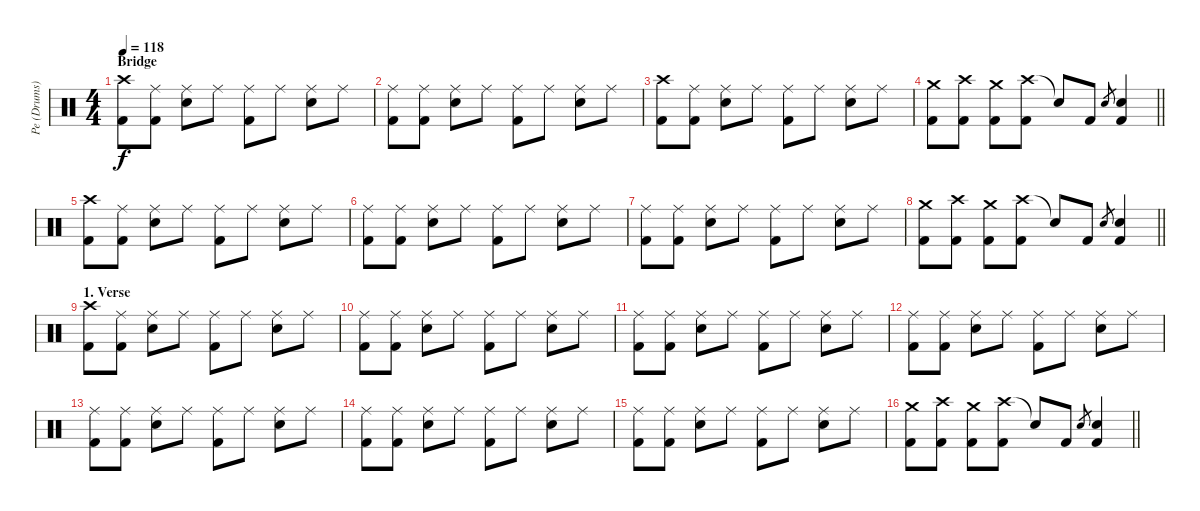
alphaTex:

\track ("Pe (Drums)" "Pe (Drums)") {instrument percussion}
\staff {score}
\articulation defaults
\ts (4 4)
\section ("" "Bridge")
\tempo 118
\clef neutral
\ks c
("Crash high (hit)" "Kick (hit) 2").8{dy f} ("Ride (middle)" "Kick (hit) 2").8 ("Ride (middle)" "Snare (hit) 2").8 "Ride (middle)".8 ("Ride (middle)" "Kick (hit) 2").8 "Ride (middle)".8 ("Ride (middle)" "Snare (hit) 2").8 "Ride (middle)".8 |
("Ride (middle)" "Kick (hit) 2").8 ("Ride (middle)" "Kick (hit) 2").8 ("Ride (middle)" "Snare (hit) 2").8 "Ride (middle)".8 ("Ride (middle)" "Kick (hit) 2").8 "Ride (middle)".8 ("Ride (middle)" "Snare (hit) 2").8 "Ride (middle)".8 |
("Crash high (hit)" "Kick (hit) 2").8 ("Ride (middle)" "Kick (hit) 2").8 ("Ride (middle)" "Snare (hit) 2").8 "Ride (middle)".8 ("Ride (middle)" "Kick (hit) 2").8 "Ride (middle)".8 ("Ride (middle)" "Snare (hit) 2").8 "Ride (middle)".8 |
\barLineRight lightlight
("Crash medium (hit)" "Kick (hit) 2").8 ("Crash high (hit)" "Kick (hit) 2").8 ("Crash medium (hit)" "Kick (hit) 2").8 ("Crash high (hit)" "Kick (hit) 2").8 "Snare (hit)"{t}.8 "Kick (hit) 2".8 "Snare (hit) 2".8{gr} ("Snare (hit) 2" "Kick (hit) 2").4 |
("Crash high (hit)" "Kick (hit) 2").8 ("Ride (middle)" "Kick (hit) 2").8 ("Ride (middle)" "Snare (hit) 2").8 "Ride (middle)".8 ("Ride (middle)" "Kick (hit) 2").8 "Ride (middle)".8 ("Ride (middle)" "Snare (hit) 2").8 "Ride (middle)".8 |
("Ride (middle)" "Kick (hit) 2").8 ("Ride (middle)" "Kick (hit) 2").8 ("Ride (middle)" "Snare (hit) 2").8 "Ride (middle)".8 ("Ride (middle)" "Kick (hit) 2").8 "Ride (middle)".8 ("Ride (middle)" "Snare (hit) 2").8 "Ride (middle)".8 |
("Ride (middle)" "Kick (hit) 2").8 ("Ride (middle)" "Kick (hit) 2").8 ("Ride (middle)" "Snare (hit) 2").8 "Ride (middle)".8 ("Ride (middle)" "Kick (hit) 2").8 "Ride (middle)".8 ("Ride (middle)" "Snare (hit) 2").8 "Ride (middle)".8 |
\barLineRight lightlight
("Crash medium (hit)" "Kick (hit) 2").8 ("Crash high (hit)" "Kick (hit) 2").8 ("Crash medium (hit)" "Kick (hit) 2").8 ("Crash high (hit)" "Kick (hit) 2").8 "Snare (hit)"{t}.8 "Kick (hit) 2".8 "Snare (hit) 2".8{gr} ("Snare (hit) 2" "Kick (hit) 2").4 |
\section ("" "1. Verse")
("Crash high (hit)" "Kick (hit) 2").8 ("Ride (middle)" "Kick (hit) 2").8 ("Ride (middle)" "Snare (hit) 2").8 "Ride (middle)".8 ("Ride (middle)" "Kick (hit) 2").8 "Ride (middle)".8 ("Ride (middle)" "Snare (hit) 2").8 "Ride (middle)".8 |
("Ride (middle)" "Kick (hit) 2").8 ("Ride (middle)" "Kick (hit) 2").8 ("Ride (middle)" "Snare (hit) 2").8 "Ride (middle)".8 ("Ride (middle)" "Kick (hit) 2").8 "Ride (middle)".8 ("Ride (middle)" "Snare (hit) 2").8 "Ride (middle)".8 |
("Ride (middle)" "Kick (hit) 2").8 ("Ride (middle)" "Kick (hit) 2").8 ("Ride (middle)" "Snare (hit) 2").8 "Ride (middle)".8 ("Ride (middle)" "Kick (hit) 2").8 "Ride (middle)".8 ("Ride (middle)" "Snare (hit) 2").8 "Ride (middle)".8 |
("Ride (middle)" "Kick (hit) 2").8 ("Ride (middle)" "Kick (hit) 2").8 ("Ride (middle)" "Snare (hit) 2").8 "Ride (middle)".8 ("Ride (middle)" "Kick (hit) 2").8 "Ride (middle)".8 ("Ride (middle)" "Snare (hit) 2").8 "Ride (middle)".8 |
("Ride (middle)" "Kick (hit) 2").8 ("Ride (middle)" "Kick (hit) 2").8 ("Ride (middle)" "Snare (hit) 2").8 "Ride (middle)".8 ("Ride (middle)" "Kick (hit) 2").8 "Ride (middle)".8 ("Ride (middle)" "Snare (hit) 2").8 "Ride (middle)".8 |
("Ride (middle)" "Kick (hit) 2").8 ("Ride (middle)" "Kick (hit) 2").8 ("Ride (middle)" "Snare (hit) 2").8 "Ride (middle)".8 ("Ride (middle)" "Kick (hit) 2").8 "Ride (middle)".8 ("Ride (middle)" "Snare (hit) 2").8 "Ride (middle)".8 |
("Ride (middle)" "Kick (hit) 2").8 ("Ride (middle)" "Kick (hit) 2").8 ("Ride (middle)" "Snare (hit) 2").8 "Ride (middle)".8 ("Ride (middle)" "Kick (hit) 2").8 "Ride (middle)".8 ("Ride (middle)" "Snare (hit) 2").8 "Ride (middle)".8 |
\barLineRight lightlight
("Crash medium (hit)" "Kick (hit) 2").8 ("Crash high (hit)" "Kick (hit) 2").8 ("Crash medium (hit)" "Kick (hit) 2").8 ("Crash high (hit)" "Kick (hit) 2").8 "Snare (hit)"{t}.8 "Kick (hit) 2".8 "Snare (hit) 2".8{gr} ("Snare (hit) 2" "Kick (hit) 2").4
